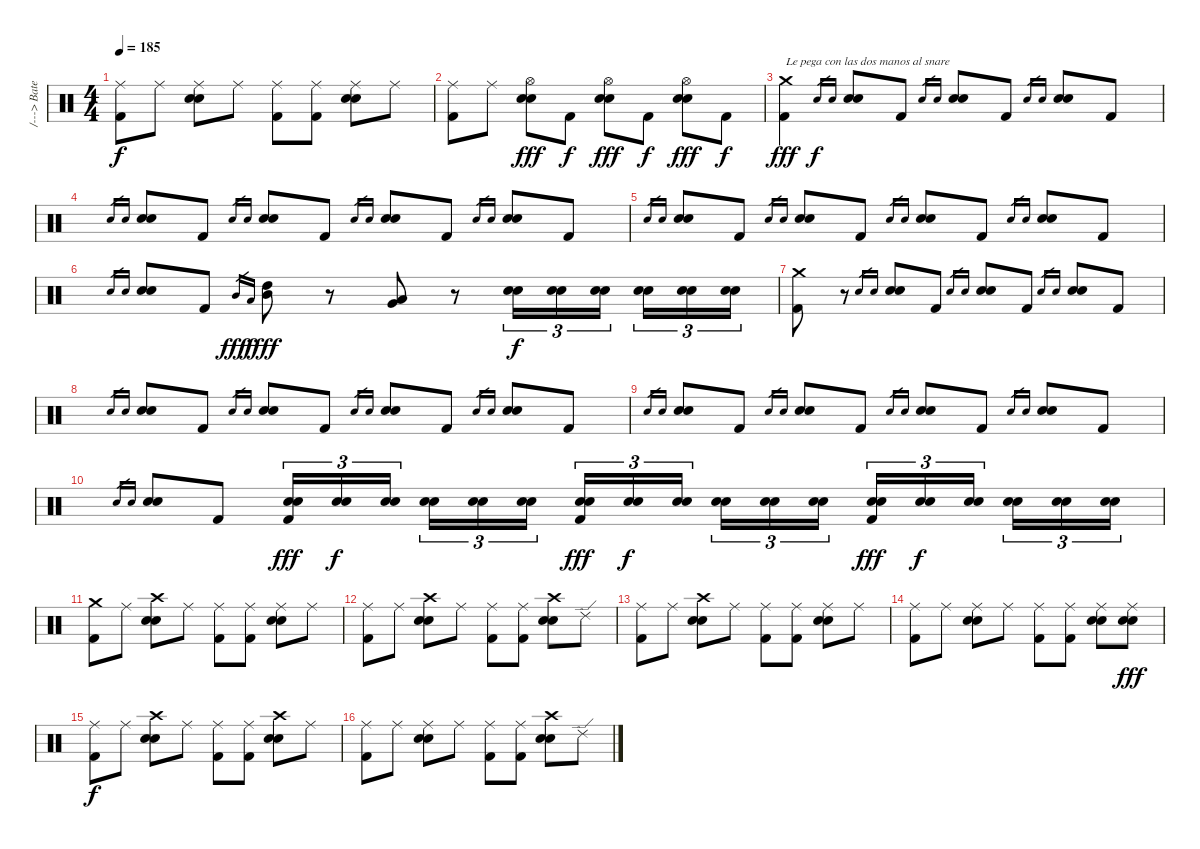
\track ("/---> Bateria <----/" "/---> Bate") {instrument percussion}
\staff {score}
\articulation defaults
\ts (4 4)
\tempo 185
\clef neutral
\ks c
("Ride (middle)" "Kick (hit) 2").8{dy f} "Ride (middle)".8 ("Ride (middle)" "Snare (hit) 2" "Electric Snare (hit)").8 "Ride (middle)".8 ("Ride (middle)" "Kick (hit) 2").8 ("Ride (middle)" "Kick (hit) 2").8 ("Ride (middle)" "Snare (hit) 2" "Electric Snare (hit)").8 "Ride (middle)".8 |
("Ride (middle)" "Kick (hit) 2").8 "Ride (middle)".8 ("Hi-Hat (open)" "Snare (hit) 2" "Electric Snare (hit)").8{dy fff} "Kick (hit) 2".8{dy f} ("Hi-Hat (open)" "Snare (hit) 2" "Electric Snare (hit)").8{dy fff} "Kick (hit) 2".8{dy f} ("Hi-Hat (open)" "Snare (hit) 2" "Electric Snare (hit)").8{dy fff} "Kick (hit) 2".8{dy f} |
("Crash medium (hit)" "Kick (hit) 2").4{txt "Le pega con las dos manos al snare" dy fff} "Snare (hit) 2".16{gr dy f} "Electric Snare (hit)".16{gr} ("Snare (hit) 2" "Electric Snare (hit)").8 "Kick (hit) 2".8 "Snare (hit) 2".16{gr} "Electric Snare (hit)".16{gr} ("Snare (hit) 2" "Electric Snare (hit)").8 "Kick (hit) 2".8 "Snare (hit) 2".16{gr} "Electric Snare (hit)".16{gr} ("Snare (hit) 2" "Electric Snare (hit)").8 "Kick (hit) 2".8 |
"Snare (hit) 2".16{gr} "Electric Snare (hit)".16{gr} ("Snare (hit) 2" "Electric Snare (hit)").8 "Kick (hit) 2".8 "Snare (hit) 2".16{gr} "Electric Snare (hit)".16{gr} ("Snare (hit) 2" "Electric Snare (hit)").8 "Kick (hit) 2".8 "Snare (hit) 2".16{gr} "Electric Snare (hit)".16{gr} ("Snare (hit) 2" "Electric Snare (hit)").8 "Kick (hit) 2".8 "Snare (hit) 2".16{gr} "Electric Snare (hit)".16{gr} ("Snare (hit) 2" "Electric Snare (hit)").8 "Kick (hit) 2".8 |
"Snare (hit) 2".16{gr} "Electric Snare (hit)".16{gr} ("Snare (hit) 2" "Electric Snare (hit)").8 "Kick (hit) 2".8 "Snare (hit) 2".16{gr} "Electric Snare (hit)".16{gr} ("Snare (hit) 2" "Electric Snare (hit)").8 "Kick (hit) 2".8 "Snare (hit) 2".16{gr} "Electric Snare (hit)".16{gr} ("Snare (hit) 2" "Electric Snare (hit)").8 "Kick (hit) 2".8 "Snare (hit) 2".16{gr} "Electric Snare (hit)".16{gr} ("Snare (hit) 2" "Electric Snare (hit)").8 "Kick (hit) 2".8 |
"Snare (hit) 2".16{gr} "Electric Snare (hit)".16{gr} ("Snare (hit) 2" "Electric Snare (hit)").8 "Kick (hit) 2".8 "Mid Tom (hit)".16{gr dy fff} "Low Tom (hit)".16{gr dy f} ("High Tom (hit)" "Mid Tom (hit)").8{dy fff} r.8 ("Low Tom (hit)" "Very Low Tom (hit)").8 r.8 ("Snare (hit) 2" "Electric Snare (hit)").16{tu (3 2) dy f} ("Snare (hit) 2" "Electric Snare (hit)").16{tu (3 2)} ("Snare (hit) 2" "Electric Snare (hit)").16{tu (3 2)} ("Snare (hit) 2" "Electric Snare (hit)").16{tu (3 2)} ("Snare (hit) 2" "Electric Snare (hit)").16{tu (3 2)} ("Snare (hit) 2" "Electric Snare (hit)").16{tu (3 2)} |
("Crash medium (hit)" "Kick (hit) 2").8 r.8 "Snare (hit) 2".16{gr} "Electric Snare (hit)".16{gr} ("Snare (hit) 2" "Electric Snare (hit)").8 "Kick (hit) 2".8 "Snare (hit) 2".16{gr} "Electric Snare (hit)".16{gr} ("Snare (hit) 2" "Electric Snare (hit)").8 "Kick (hit) 2".8 "Snare (hit) 2".16{gr} "Electric Snare (hit)".16{gr} ("Snare (hit) 2" "Electric Snare (hit)").8 "Kick (hit) 2".8 |
"Snare (hit) 2".16{gr} "Electric Snare (hit)".16{gr} ("Snare (hit) 2" "Electric Snare (hit)").8 "Kick (hit) 2".8 "Snare (hit) 2".16{gr} "Electric Snare (hit)".16{gr} ("Snare (hit) 2" "Electric Snare (hit)").8 "Kick (hit) 2".8 "Snare (hit) 2".16{gr} "Electric Snare (hit)".16{gr} ("Snare (hit) 2" "Electric Snare (hit)").8 "Kick (hit) 2".8 "Snare (hit) 2".16{gr} "Electric Snare (hit)".16{gr} ("Snare (hit) 2" "Electric Snare (hit)").8 "Kick (hit) 2".8 |
"Snare (hit) 2".16{gr} "Electric Snare (hit)".16{gr} ("Snare (hit) 2" "Electric Snare (hit)").8 "Kick (hit) 2".8 "Snare (hit) 2".16{gr} "Electric Snare (hit)".16{gr} ("Snare (hit) 2" "Electric Snare (hit)").8 "Kick (hit) 2".8 "Snare (hit) 2".16{gr} "Electric Snare (hit)".16{gr} ("Snare (hit) 2" "Electric Snare (hit)").8 "Kick (hit) 2".8 "Snare (hit) 2".16{gr} "Electric Snare (hit)".16{gr} ("Snare (hit) 2" "Electric Snare (hit)").8 "Kick (hit) 2".8 |
"Snare (hit) 2".16{gr} "Electric Snare (hit)".16{gr} ("Snare (hit) 2" "Electric Snare (hit)").8 "Kick (hit) 2".8 ("Snare (hit) 2" "Electric Snare (hit)" "Kick (hit) 2").16{tu (3 2) dy fff} ("Snare (hit) 2" "Electric Snare (hit)").16{tu (3 2) dy f} ("Snare (hit) 2" "Electric Snare (hit)").16{tu (3 2)} ("Snare (hit) 2" "Electric Snare (hit)").16{tu (3 2)} ("Snare (hit) 2" "Electric Snare (hit)").16{tu (3 2)} ("Snare (hit) 2" "Electric Snare (hit)").16{tu (3 2)} ("Snare (hit) 2" "Electric Snare (hit)" "Kick (hit) 2").16{tu (3 2) dy fff} ("Snare (hit) 2" "Electric Snare (hit)").16{tu (3 2) dy f} ("Snare (hit) 2" "Electric Snare (hit)").16{tu (3 2)} ("Snare (hit) 2" "Electric Snare (hit)").16{tu (3 2)} ("Snare (hit) 2" "Electric Snare (hit)").16{tu (3 2)} ("Snare (hit) 2" "Electric Snare (hit)").16{tu (3 2)} ("Snare (hit) 2" "Electric Snare (hit)" "Kick (hit) 2").16{tu (3 2) dy fff} ("Snare (hit) 2" "Electric Snare (hit)").16{tu (3 2) dy f} ("Snare (hit) 2" "Electric Snare (hit)").16{tu (3 2)} ("Snare (hit) 2" "Electric Snare (hit)").16{tu (3 2)} ("Snare (hit) 2" "Electric Snare (hit)").16{tu (3 2)} ("Snare (hit) 2" "Electric Snare (hit)").16{tu (3 2)} |
("Crash medium (hit)" "Kick (hit) 2").8 "Ride (middle)".8 ("Crash high (hit)" "Snare (hit) 2" "Electric Snare (hit)").8 "Ride (middle)".8 ("Ride (middle)" "Kick (hit) 2").8 ("Ride (middle)" "Kick (hit) 2").8 ("Ride (middle)" "Snare (hit) 2" "Electric Snare (hit)").8 "Ride (middle)".8 |
("Ride (middle)" "Kick (hit) 2").8 "Ride (middle)".8 ("Crash high (hit)" "Snare (hit) 2" "Electric Snare (hit)").8 "Ride (middle)".8 ("Ride (middle)" "Kick (hit) 2").8 ("Ride (middle)" "Kick (hit) 2").8 ("Crash high (hit)" "Snare (hit) 2" "Electric Snare (hit)").8 "Ride (edge) 2".8 |
("Ride (middle)" "Kick (hit) 2").8 "Ride (middle)".8 ("Crash high (hit)" "Snare (hit) 2" "Electric Snare (hit)").8 "Ride (middle)".8 ("Ride (middle)" "Kick (hit) 2").8 ("Ride (middle)" "Kick (hit) 2").8 ("Ride (middle)" "Snare (hit) 2" "Electric Snare (hit)").8 "Ride (middle)".8 |
("Ride (middle)" "Kick (hit) 2").8 "Ride (middle)".8 ("Ride (middle)" "Snare (hit) 2" "Electric Snare (hit)").8 "Ride (middle)".8 ("Ride (middle)" "Kick (hit) 2").8 ("Ride (middle)" "Kick (hit) 2").8 ("Ride (middle)" "Snare (hit) 2" "Electric Snare (hit)").8 ("Ride (middle)" "Snare (hit) 2" "Electric Snare (hit)").8{dy fff} |
("Ride (middle)" "Kick (hit) 2").8{dy f} "Ride (middle)".8 ("Crash high (hit)" "Snare (hit) 2" "Electric Snare (hit)").8 "Ride (middle)".8 ("Ride (middle)" "Kick (hit) 2").8 ("Ride (middle)" "Kick (hit) 2").8 ("Crash high (hit)" "Snare (hit) 2" "Electric Snare (hit)").8 "Ride (middle)".8 |
("Ride (middle)" "Kick (hit) 2").8 "Ride (middle)".8 ("Ride (middle)" "Snare (hit) 2" "Electric Snare (hit)").8 "Ride (middle)".8 ("Ride (middle)" "Kick (hit) 2").8 ("Ride (middle)" "Kick (hit) 2").8 ("Crash high (hit)" "Snare (hit) 2" "Electric Snare (hit)").8 "Ride (edge) 2".8
